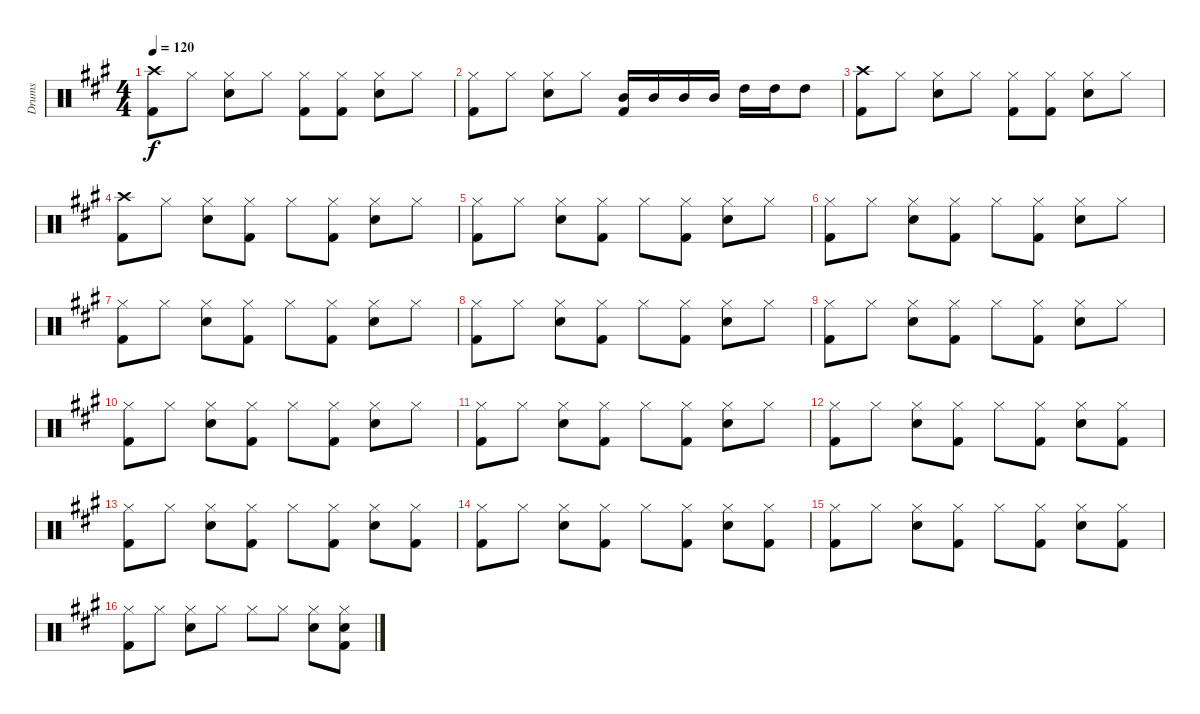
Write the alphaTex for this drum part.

\track ("Drums" "Drums") {instrument percussion}
\staff {score}
\articulation defaults
\ts (4 4)
\tempo 120
\clef neutral
\ks a
("Crash high (hit)" "Kick (hit) 2").8{dy f} "Hi-Hat (closed)".8 ("Hi-Hat (closed)" "Snare (hit) 2").8 "Hi-Hat (closed)".8 ("Hi-Hat (closed)" "Kick (hit) 2").8 ("Hi-Hat (closed)" "Kick (hit) 2").8 ("Hi-Hat (closed)" "Snare (hit) 2").8 "Hi-Hat (closed)".8 |
("Hi-Hat (closed)" "Kick (hit) 2").8 "Hi-Hat (closed)".8 ("Hi-Hat (closed)" "Snare (hit) 2").8 "Hi-Hat (closed)".8 ("Mid Tom (hit)" "Kick (hit) 2").16 "Mid Tom (hit)".16 "Mid Tom (hit)".16 "Mid Tom (hit)".16 "High Tom (hit)".16 "High Tom (hit)".16 "High Tom (hit)".8 |
("Crash high (hit)" "Kick (hit) 2").8 "Hi-Hat (closed)".8 ("Hi-Hat (closed)" "Snare (hit) 2").8 "Hi-Hat (closed)".8 ("Hi-Hat (closed)" "Kick (hit) 2").8 ("Hi-Hat (closed)" "Kick (hit) 2").8 ("Hi-Hat (closed)" "Snare (hit) 2").8 "Hi-Hat (closed)".8 |
("Crash high (hit)" "Kick (hit) 2").8 "Hi-Hat (closed)".8 ("Hi-Hat (closed)" "Snare (hit) 2").8 ("Hi-Hat (closed)" "Kick (hit) 2").8 "Hi-Hat (closed)".8 ("Hi-Hat (closed)" "Kick (hit) 2").8 ("Hi-Hat (closed)" "Snare (hit) 2").8 "Hi-Hat (closed)".8 |
("Hi-Hat (closed)" "Kick (hit) 2").8 "Hi-Hat (closed)".8 ("Hi-Hat (closed)" "Snare (hit) 2").8 ("Hi-Hat (closed)" "Kick (hit) 2").8 "Hi-Hat (closed)".8 ("Hi-Hat (closed)" "Kick (hit) 2").8 ("Hi-Hat (closed)" "Snare (hit) 2").8 "Hi-Hat (closed)".8 |
("Hi-Hat (closed)" "Kick (hit) 2").8 "Hi-Hat (closed)".8 ("Hi-Hat (closed)" "Snare (hit) 2").8 ("Hi-Hat (closed)" "Kick (hit) 2").8 "Hi-Hat (closed)".8 ("Hi-Hat (closed)" "Kick (hit) 2").8 ("Hi-Hat (closed)" "Snare (hit) 2").8 "Hi-Hat (closed)".8 |
("Hi-Hat (closed)" "Kick (hit) 2").8 "Hi-Hat (closed)".8 ("Hi-Hat (closed)" "Snare (hit) 2").8 ("Hi-Hat (closed)" "Kick (hit) 2").8 "Hi-Hat (closed)".8 ("Hi-Hat (closed)" "Kick (hit) 2").8 ("Hi-Hat (closed)" "Snare (hit) 2").8 "Hi-Hat (closed)".8 |
("Hi-Hat (closed)" "Kick (hit) 2").8 "Hi-Hat (closed)".8 ("Hi-Hat (closed)" "Snare (hit) 2").8 ("Hi-Hat (closed)" "Kick (hit) 2").8 "Hi-Hat (closed)".8 ("Hi-Hat (closed)" "Kick (hit) 2").8 ("Hi-Hat (closed)" "Snare (hit) 2").8 "Hi-Hat (closed)".8 |
("Hi-Hat (closed)" "Kick (hit) 2").8 "Hi-Hat (closed)".8 ("Hi-Hat (closed)" "Snare (hit) 2").8 ("Hi-Hat (closed)" "Kick (hit) 2").8 "Hi-Hat (closed)".8 ("Hi-Hat (closed)" "Kick (hit) 2").8 ("Hi-Hat (closed)" "Snare (hit) 2").8 "Hi-Hat (closed)".8 |
("Hi-Hat (closed)" "Kick (hit) 2").8 "Hi-Hat (closed)".8 ("Hi-Hat (closed)" "Snare (hit) 2").8 ("Hi-Hat (closed)" "Kick (hit) 2").8 "Hi-Hat (closed)".8 ("Hi-Hat (closed)" "Kick (hit) 2").8 ("Hi-Hat (closed)" "Snare (hit) 2").8 "Hi-Hat (closed)".8 |
("Hi-Hat (closed)" "Kick (hit) 2").8 "Hi-Hat (closed)".8 ("Hi-Hat (closed)" "Snare (hit) 2").8 ("Hi-Hat (closed)" "Kick (hit) 2").8 "Hi-Hat (closed)".8 ("Hi-Hat (closed)" "Kick (hit) 2").8 ("Hi-Hat (closed)" "Snare (hit) 2").8 "Hi-Hat (closed)".8 |
("Hi-Hat (closed)" "Kick (hit) 2").8 "Hi-Hat (closed)".8 ("Hi-Hat (closed)" "Snare (hit) 2").8 ("Hi-Hat (closed)" "Kick (hit) 2").8 "Hi-Hat (closed)".8 ("Hi-Hat (closed)" "Kick (hit) 2").8 ("Hi-Hat (closed)" "Snare (hit) 2").8 ("Hi-Hat (closed)" "Kick (hit) 2").8 |
("Hi-Hat (closed)" "Kick (hit) 2").8 "Hi-Hat (closed)".8 ("Hi-Hat (closed)" "Snare (hit) 2").8 ("Hi-Hat (closed)" "Kick (hit) 2").8 "Hi-Hat (closed)".8 ("Hi-Hat (closed)" "Kick (hit) 2").8 ("Hi-Hat (closed)" "Snare (hit) 2").8 ("Hi-Hat (closed)" "Kick (hit) 2").8 |
("Hi-Hat (closed)" "Kick (hit) 2").8 "Hi-Hat (closed)".8 ("Hi-Hat (closed)" "Snare (hit) 2").8 ("Hi-Hat (closed)" "Kick (hit) 2").8 "Hi-Hat (closed)".8 ("Hi-Hat (closed)" "Kick (hit) 2").8 ("Hi-Hat (closed)" "Snare (hit) 2").8 ("Hi-Hat (closed)" "Kick (hit) 2").8 |
("Hi-Hat (closed)" "Kick (hit) 2").8 "Hi-Hat (closed)".8 ("Hi-Hat (closed)" "Snare (hit) 2").8 ("Hi-Hat (closed)" "Kick (hit) 2").8 "Hi-Hat (closed)".8 ("Hi-Hat (closed)" "Kick (hit) 2").8 ("Hi-Hat (closed)" "Snare (hit) 2").8 ("Hi-Hat (closed)" "Kick (hit) 2").8 |
("Hi-Hat (closed)" "Kick (hit) 2").8 "Hi-Hat (closed)".8 ("Hi-Hat (closed)" "Snare (hit) 2").8 "Hi-Hat (closed)".8 "Hi-Hat (closed)".8 "Hi-Hat (closed)".8 ("Hi-Hat (closed)" "Snare (hit) 2").8 ("Hi-Hat (closed)" "Snare (hit) 2" "Kick (hit) 2").8
